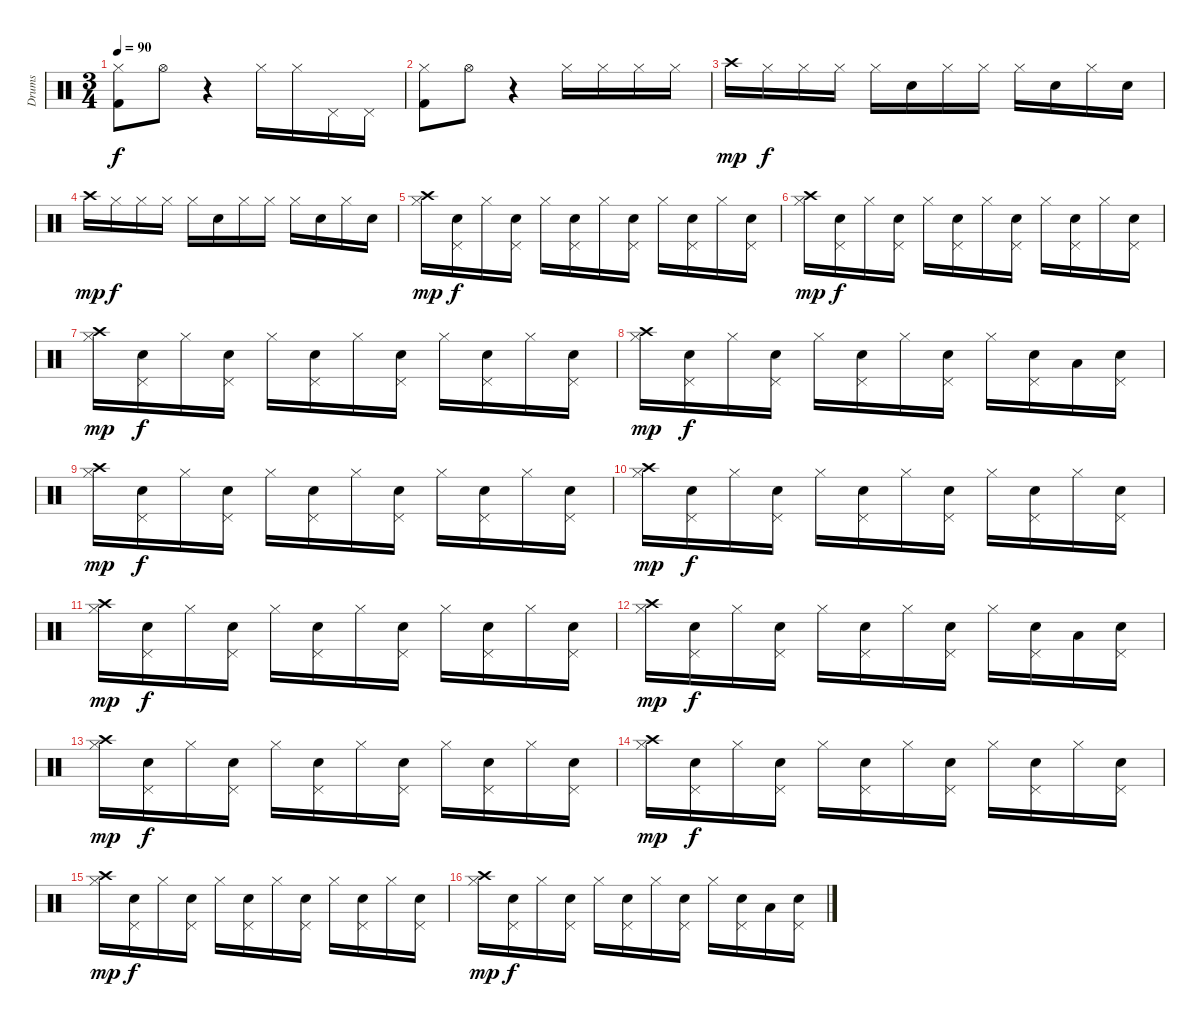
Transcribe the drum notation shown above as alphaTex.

\track ("Drums" "Drums") {instrument percussion}
\staff {score}
\articulation defaults
\ts (3 4)
\tempo 90
\clef neutral
\ks c
("Hi-Hat (closed)" "Kick (hit) 2").8{dy f} "Hi-Hat (open)".8 r.4 "Hi-Hat (closed)".16 "Hi-Hat (closed)".16 "Pedal Hi-Hat (hit)".16 "Pedal Hi-Hat (hit)".16 |
("Hi-Hat (closed)" "Kick (hit) 2").8 "Hi-Hat (open)".8 r.4 "Hi-Hat (closed)".16 "Hi-Hat (closed)".16 "Hi-Hat (closed)".16 "Hi-Hat (closed)".16 |
"Crash high (hit)".16{dy mp} "Hi-Hat (closed)".16{dy f} "Hi-Hat (closed)".16 "Hi-Hat (closed)".16 "Hi-Hat (closed)".16 "Electric Snare (hit)".16 "Hi-Hat (closed)".16 "Hi-Hat (closed)".16 "Hi-Hat (closed)".16 "Electric Snare (hit)".16 "Hi-Hat (closed)".16 "Electric Snare (hit)".16 |
"Crash high (hit)".16{dy mp} "Hi-Hat (closed)".16{dy f} "Hi-Hat (closed)".16 "Hi-Hat (closed)".16 "Hi-Hat (closed)".16 "Electric Snare (hit)".16 "Hi-Hat (closed)".16 "Hi-Hat (closed)".16 "Hi-Hat (closed)".16 "Electric Snare (hit)".16 "Hi-Hat (closed)".16 "Electric Snare (hit)".16 |
("Hi-Hat (closed)" "Crash high (hit)").16{dy mp} ("Pedal Hi-Hat (hit)" "Electric Snare (hit)").16{dy f} "Hi-Hat (closed)".16 ("Pedal Hi-Hat (hit)" "Electric Snare (hit)").16 "Hi-Hat (closed)".16 ("Pedal Hi-Hat (hit)" "Electric Snare (hit)").16 "Hi-Hat (closed)".16 ("Pedal Hi-Hat (hit)" "Electric Snare (hit)").16 "Hi-Hat (closed)".16 ("Pedal Hi-Hat (hit)" "Electric Snare (hit)").16 "Hi-Hat (closed)".16 ("Pedal Hi-Hat (hit)" "Electric Snare (hit)").16 |
("Hi-Hat (closed)" "Crash high (hit)").16{dy mp} ("Pedal Hi-Hat (hit)" "Electric Snare (hit)").16{dy f} "Hi-Hat (closed)".16 ("Pedal Hi-Hat (hit)" "Electric Snare (hit)").16 "Hi-Hat (closed)".16 ("Pedal Hi-Hat (hit)" "Electric Snare (hit)").16 "Hi-Hat (closed)".16 ("Pedal Hi-Hat (hit)" "Electric Snare (hit)").16 "Hi-Hat (closed)".16 ("Pedal Hi-Hat (hit)" "Electric Snare (hit)").16 "Hi-Hat (closed)".16 ("Pedal Hi-Hat (hit)" "Electric Snare (hit)").16 |
("Hi-Hat (closed)" "Crash high (hit)").16{dy mp} ("Pedal Hi-Hat (hit)" "Electric Snare (hit)").16{dy f} "Hi-Hat (closed)".16 ("Pedal Hi-Hat (hit)" "Electric Snare (hit)").16 "Hi-Hat (closed)".16 ("Pedal Hi-Hat (hit)" "Electric Snare (hit)").16 "Hi-Hat (closed)".16 ("Pedal Hi-Hat (hit)" "Electric Snare (hit)").16 "Hi-Hat (closed)".16 ("Pedal Hi-Hat (hit)" "Electric Snare (hit)").16 "Hi-Hat (closed)".16 ("Pedal Hi-Hat (hit)" "Electric Snare (hit)").16 |
("Hi-Hat (closed)" "Crash high (hit)").16{dy mp} ("Pedal Hi-Hat (hit)" "Electric Snare (hit)").16{dy f} "Hi-Hat (closed)".16 ("Pedal Hi-Hat (hit)" "Electric Snare (hit)").16 "Hi-Hat (closed)".16 ("Pedal Hi-Hat (hit)" "Electric Snare (hit)").16 "Hi-Hat (closed)".16 ("Pedal Hi-Hat (hit)" "Electric Snare (hit)").16 "Hi-Hat (closed)".16 ("Pedal Hi-Hat (hit)" "Electric Snare (hit)").16 "Low Tom (hit)".16 ("Pedal Hi-Hat (hit)" "Electric Snare (hit)").16 |
("Hi-Hat (closed)" "Crash high (hit)").16{dy mp} ("Pedal Hi-Hat (hit)" "Electric Snare (hit)").16{dy f} "Hi-Hat (closed)".16 ("Pedal Hi-Hat (hit)" "Electric Snare (hit)").16 "Hi-Hat (closed)".16 ("Pedal Hi-Hat (hit)" "Electric Snare (hit)").16 "Hi-Hat (closed)".16 ("Pedal Hi-Hat (hit)" "Electric Snare (hit)").16 "Hi-Hat (closed)".16 ("Pedal Hi-Hat (hit)" "Electric Snare (hit)").16 "Hi-Hat (closed)".16 ("Pedal Hi-Hat (hit)" "Electric Snare (hit)").16 |
("Hi-Hat (closed)" "Crash high (hit)").16{dy mp} ("Pedal Hi-Hat (hit)" "Electric Snare (hit)").16{dy f} "Hi-Hat (closed)".16 ("Pedal Hi-Hat (hit)" "Electric Snare (hit)").16 "Hi-Hat (closed)".16 ("Pedal Hi-Hat (hit)" "Electric Snare (hit)").16 "Hi-Hat (closed)".16 ("Pedal Hi-Hat (hit)" "Electric Snare (hit)").16 "Hi-Hat (closed)".16 ("Pedal Hi-Hat (hit)" "Electric Snare (hit)").16 "Hi-Hat (closed)".16 ("Pedal Hi-Hat (hit)" "Electric Snare (hit)").16 |
("Hi-Hat (closed)" "Crash high (hit)").16{dy mp} ("Pedal Hi-Hat (hit)" "Electric Snare (hit)").16{dy f} "Hi-Hat (closed)".16 ("Pedal Hi-Hat (hit)" "Electric Snare (hit)").16 "Hi-Hat (closed)".16 ("Pedal Hi-Hat (hit)" "Electric Snare (hit)").16 "Hi-Hat (closed)".16 ("Pedal Hi-Hat (hit)" "Electric Snare (hit)").16 "Hi-Hat (closed)".16 ("Pedal Hi-Hat (hit)" "Electric Snare (hit)").16 "Hi-Hat (closed)".16 ("Pedal Hi-Hat (hit)" "Electric Snare (hit)").16 |
("Hi-Hat (closed)" "Crash high (hit)").16{dy mp} ("Pedal Hi-Hat (hit)" "Electric Snare (hit)").16{dy f} "Hi-Hat (closed)".16 ("Pedal Hi-Hat (hit)" "Electric Snare (hit)").16 "Hi-Hat (closed)".16 ("Pedal Hi-Hat (hit)" "Electric Snare (hit)").16 "Hi-Hat (closed)".16 ("Pedal Hi-Hat (hit)" "Electric Snare (hit)").16 "Hi-Hat (closed)".16 ("Pedal Hi-Hat (hit)" "Electric Snare (hit)").16 "Low Tom (hit)".16 ("Pedal Hi-Hat (hit)" "Electric Snare (hit)").16 |
("Hi-Hat (closed)" "Crash high (hit)").16{dy mp} ("Pedal Hi-Hat (hit)" "Electric Snare (hit)").16{dy f} "Hi-Hat (closed)".16 ("Pedal Hi-Hat (hit)" "Electric Snare (hit)").16 "Hi-Hat (closed)".16 ("Pedal Hi-Hat (hit)" "Electric Snare (hit)").16 "Hi-Hat (closed)".16 ("Pedal Hi-Hat (hit)" "Electric Snare (hit)").16 "Hi-Hat (closed)".16 ("Pedal Hi-Hat (hit)" "Electric Snare (hit)").16 "Hi-Hat (closed)".16 ("Pedal Hi-Hat (hit)" "Electric Snare (hit)").16 |
("Hi-Hat (closed)" "Crash high (hit)").16{dy mp} ("Pedal Hi-Hat (hit)" "Electric Snare (hit)").16{dy f} "Hi-Hat (closed)".16 ("Pedal Hi-Hat (hit)" "Electric Snare (hit)").16 "Hi-Hat (closed)".16 ("Pedal Hi-Hat (hit)" "Electric Snare (hit)").16 "Hi-Hat (closed)".16 ("Pedal Hi-Hat (hit)" "Electric Snare (hit)").16 "Hi-Hat (closed)".16 ("Pedal Hi-Hat (hit)" "Electric Snare (hit)").16 "Hi-Hat (closed)".16 ("Pedal Hi-Hat (hit)" "Electric Snare (hit)").16 |
("Hi-Hat (closed)" "Crash high (hit)").16{dy mp} ("Pedal Hi-Hat (hit)" "Electric Snare (hit)").16{dy f} "Hi-Hat (closed)".16 ("Pedal Hi-Hat (hit)" "Electric Snare (hit)").16 "Hi-Hat (closed)".16 ("Pedal Hi-Hat (hit)" "Electric Snare (hit)").16 "Hi-Hat (closed)".16 ("Pedal Hi-Hat (hit)" "Electric Snare (hit)").16 "Hi-Hat (closed)".16 ("Pedal Hi-Hat (hit)" "Electric Snare (hit)").16 "Hi-Hat (closed)".16 ("Pedal Hi-Hat (hit)" "Electric Snare (hit)").16 |
("Hi-Hat (closed)" "Crash high (hit)").16{dy mp} ("Pedal Hi-Hat (hit)" "Electric Snare (hit)").16{dy f} "Hi-Hat (closed)".16 ("Pedal Hi-Hat (hit)" "Electric Snare (hit)").16 "Hi-Hat (closed)".16 ("Pedal Hi-Hat (hit)" "Electric Snare (hit)").16 "Hi-Hat (closed)".16 ("Pedal Hi-Hat (hit)" "Electric Snare (hit)").16 "Hi-Hat (closed)".16 ("Pedal Hi-Hat (hit)" "Electric Snare (hit)").16 "Low Tom (hit)".16 ("Pedal Hi-Hat (hit)" "Electric Snare (hit)").16
